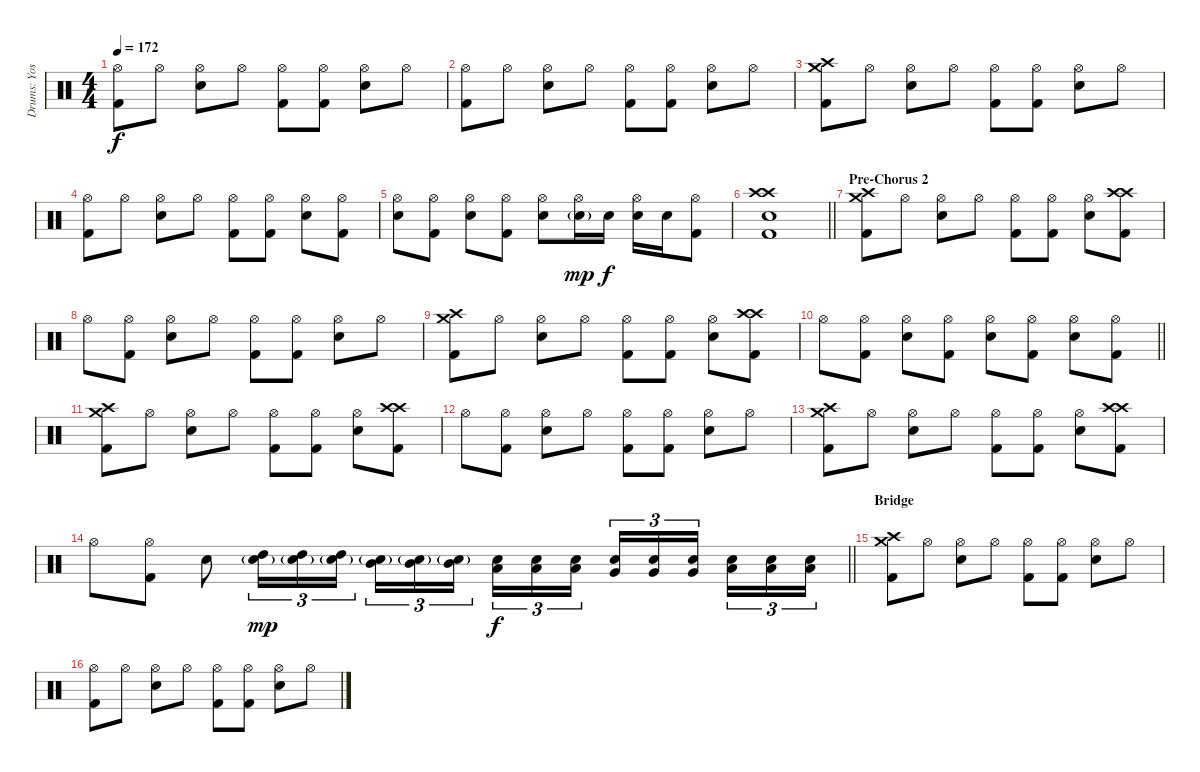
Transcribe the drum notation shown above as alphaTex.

\track ("Drums: Yoshiki" "Drums: Yos") {instrument percussion}
\staff {score}
\articulation defaults
\ts (4 4)
\tempo 172
\clef neutral
\ks c
("Hi-Hat (open)" "Kick (hit) 2").8{dy f} "Hi-Hat (open)".8 ("Hi-Hat (open)" "Snare (hit) 2").8 "Hi-Hat (open)".8 ("Hi-Hat (open)" "Kick (hit) 2").8 ("Hi-Hat (open)" "Kick (hit) 2").8 ("Hi-Hat (open)" "Snare (hit) 2").8 "Hi-Hat (open)".8 |
("Hi-Hat (open)" "Kick (hit) 2").8 "Hi-Hat (open)".8 ("Hi-Hat (open)" "Snare (hit) 2").8 "Hi-Hat (open)".8 ("Hi-Hat (open)" "Kick (hit) 2").8 ("Hi-Hat (open)" "Kick (hit) 2").8 ("Hi-Hat (open)" "Snare (hit) 2").8 "Hi-Hat (open)".8 |
("Crash high (hit)" "Crash medium (hit)" "Kick (hit) 2").8 "Hi-Hat (open)".8 ("Hi-Hat (open)" "Snare (hit) 2").8 "Hi-Hat (open)".8 ("Hi-Hat (open)" "Kick (hit) 2").8 ("Hi-Hat (open)" "Kick (hit) 2").8 ("Hi-Hat (open)" "Snare (hit) 2").8 "Hi-Hat (open)".8 |
("Hi-Hat (open)" "Kick (hit) 2").8 "Hi-Hat (open)".8 ("Hi-Hat (open)" "Snare (hit) 2").8 "Hi-Hat (open)".8 ("Hi-Hat (open)" "Kick (hit) 2").8 ("Hi-Hat (open)" "Kick (hit) 2").8 ("Hi-Hat (open)" "Snare (hit) 2").8 ("Hi-Hat (open)" "Kick (hit) 2").8 |
("Hi-Hat (open)" "Snare (hit) 2").8 ("Hi-Hat (open)" "Kick (hit) 2").8 ("Hi-Hat (open)" "Snare (hit) 2").8 ("Hi-Hat (open)" "Kick (hit) 2").8 ("Hi-Hat (open)" "Snare (hit) 2").8 ("Hi-Hat (open)" "Snare (hit) 2"{g}).16{dy mp} "Snare (hit) 2".16{dy f} ("Hi-Hat (open)" "Snare (hit) 2").16 "Snare (hit) 2".16 ("Hi-Hat (open)" "Kick (hit) 2").8 |
\barLineRight lightlight
("Crash high (hit)" "Crash high (hit)" "Snare (hit) 2" "Kick (hit) 2").1 |
\section ("" "Pre-Chorus 2")
("Crash high (hit)" "Crash medium (hit)" "Kick (hit) 2").8{volume 11} "Hi-Hat (open)".8 ("Hi-Hat (open)" "Snare (hit) 2").8 "Hi-Hat (open)".8 ("Hi-Hat (open)" "Kick (hit) 2").8 ("Hi-Hat (open)" "Kick (hit) 2").8 ("Hi-Hat (open)" "Snare (hit) 2").8 ("Crash high (hit)" "Crash high (hit)" "Kick (hit) 2").8 |
"Hi-Hat (open)".8 ("Hi-Hat (open)" "Kick (hit) 2").8 ("Hi-Hat (open)" "Snare (hit) 2").8 "Hi-Hat (open)".8 ("Hi-Hat (open)" "Kick (hit) 2").8 ("Hi-Hat (open)" "Kick (hit) 2").8 ("Hi-Hat (open)" "Snare (hit) 2").8 "Hi-Hat (open)".8 |
("Crash high (hit)" "Crash medium (hit)" "Kick (hit) 2").8 "Hi-Hat (open)".8 ("Hi-Hat (open)" "Snare (hit) 2").8 "Hi-Hat (open)".8 ("Hi-Hat (open)" "Kick (hit) 2").8 ("Hi-Hat (open)" "Kick (hit) 2").8 ("Hi-Hat (open)" "Snare (hit) 2").8 ("Crash high (hit)" "Crash high (hit)" "Kick (hit) 2").8 |
\barLineRight lightlight "Hi-Hat (open)".8
("Hi-Hat (open)" "Kick (hit) 2").8 ("Hi-Hat (open)" "Snare (hit) 2").8 ("Hi-Hat (open)" "Kick (hit) 2").8 ("Hi-Hat (open)" "Snare (hit) 2").8 ("Hi-Hat (open)" "Kick (hit) 2").8 ("Hi-Hat (open)" "Snare (hit) 2").8 ("Hi-Hat (open)" "Kick (hit) 2").8 |
("Crash high (hit)" "Crash medium (hit)" "Kick (hit) 2").8 "Hi-Hat (open)".8 ("Hi-Hat (open)" "Snare (hit) 2").8 "Hi-Hat (open)".8 ("Hi-Hat (open)" "Kick (hit) 2").8 ("Hi-Hat (open)" "Kick (hit) 2").8 ("Hi-Hat (open)" "Snare (hit) 2").8 ("Crash high (hit)" "Crash high (hit)" "Kick (hit) 2").8 |
"Hi-Hat (open)".8 ("Hi-Hat (open)" "Kick (hit) 2").8 ("Hi-Hat (open)" "Snare (hit) 2").8 "Hi-Hat (open)".8 ("Hi-Hat (open)" "Kick (hit) 2").8 ("Hi-Hat (open)" "Kick (hit) 2").8 ("Hi-Hat (open)" "Snare (hit) 2").8 "Hi-Hat (open)".8 |
("Crash high (hit)" "Crash medium (hit)" "Kick (hit) 2").8 "Hi-Hat (open)".8 ("Hi-Hat (open)" "Snare (hit) 2").8 "Hi-Hat (open)".8 ("Hi-Hat (open)" "Kick (hit) 2").8 ("Hi-Hat (open)" "Kick (hit) 2").8 ("Hi-Hat (open)" "Snare (hit) 2").8 ("Crash high (hit)" "Crash high (hit)" "Kick (hit) 2").8 |
\barLineRight lightlight "Hi-Hat (open)".8
("Hi-Hat (open)" "Kick (hit) 2").8 "Snare (hit) 2".8 ("High Tom (hit)" "Snare (hit) 2"{g}).16{tu (3 2) dy mp} ("High Tom (hit)" "Snare (hit) 2"{g}).16{tu (3 2)} ("High Tom (hit)" "Snare (hit) 2"{g}).16{tu (3 2)} ("Mid Tom (hit)" "Snare (hit) 2"{g}).16{tu (3 2)} ("Mid Tom (hit)" "Snare (hit) 2"{g}).16{tu (3 2)} ("Mid Tom (hit)" "Snare (hit) 2"{g}).16{tu (3 2) beam splitsecondary} ("Low Tom (hit)" "Snare (hit) 2").16{tu (3 2) dy f} ("Low Tom (hit)" "Snare (hit) 2").16{tu (3 2)} ("Low Tom (hit)" "Snare (hit) 2").16{tu (3 2)} ("Very Low Tom (hit)" "Snare (hit) 2").16{tu (3 2)} ("Very Low Tom (hit)" "Snare (hit) 2").16{tu (3 2)} ("Very Low Tom (hit)" "Snare (hit) 2").16{tu (3 2) beam splitsecondary} ("Low Floor Tom (hit)" "Snare (hit) 2").16{tu (3 2)} ("Low Floor Tom (hit)" "Snare (hit) 2").16{tu (3 2)} ("Low Floor Tom (hit)" "Snare (hit) 2").16{tu (3 2)} |
\section ("" "Bridge")
("Crash high (hit)" "Crash medium (hit)" "Kick (hit) 2").8{volume 11} "Hi-Hat (open)".8 ("Hi-Hat (open)" "Snare (hit) 2").8 "Hi-Hat (open)".8 ("Hi-Hat (open)" "Kick (hit) 2").8 ("Hi-Hat (open)" "Kick (hit) 2").8 ("Hi-Hat (open)" "Snare (hit) 2").8 "Hi-Hat (open)".8 |
("Hi-Hat (open)" "Kick (hit) 2").8 "Hi-Hat (open)".8 ("Hi-Hat (open)" "Snare (hit) 2").8 "Hi-Hat (open)".8 ("Hi-Hat (open)" "Kick (hit) 2").8 ("Hi-Hat (open)" "Kick (hit) 2").8 ("Hi-Hat (open)" "Snare (hit) 2").8 "Hi-Hat (open)".8
